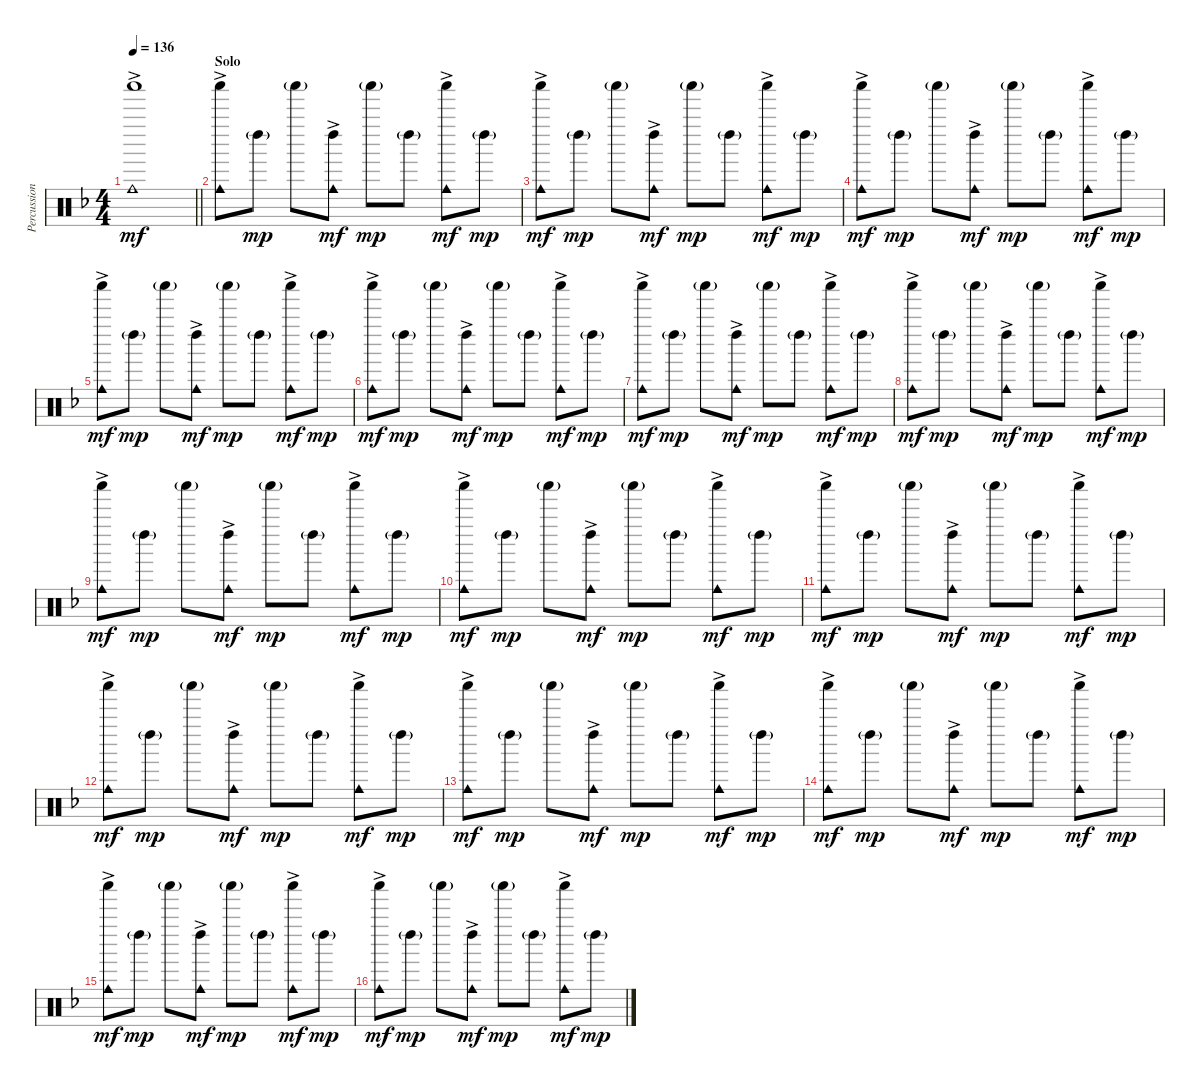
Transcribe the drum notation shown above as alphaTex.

\track ("Percussion" "Percussion") {instrument percussion}
\staff {score}
\articulation defaults
\ts (4 4)
\tempo 136
\clef neutral
\barLineRight lightlight
\ks f
("Shaker (hit)"{ac} "Cowbell medium (hit)").1{dy mf} |
\section ("" "Solo")
("Shaker (hit)"{ac} "Cowbell medium (hit)").8 "Left Maraca (hit)"{g}.8{dy mp} "Shaker (hit)"{g}.8 ("Left Maraca (hit)"{ac} "Cowbell medium (hit)").8{dy mf} "Shaker (hit)"{g}.8{dy mp} "Left Maraca (hit)"{g}.8 ("Shaker (hit)"{ac} "Cowbell medium (hit)").8{dy mf} "Left Maraca (hit)"{g}.8{dy mp} |
("Shaker (hit)"{ac} "Cowbell medium (hit)").8{dy mf} "Left Maraca (hit)"{g}.8{dy mp} "Shaker (hit)"{g}.8 ("Left Maraca (hit)"{ac} "Cowbell medium (hit)").8{dy mf} "Shaker (hit)"{g}.8{dy mp} "Left Maraca (hit)"{g}.8 ("Shaker (hit)"{ac} "Cowbell medium (hit)").8{dy mf} "Left Maraca (hit)"{g}.8{dy mp} |
("Shaker (hit)"{ac} "Cowbell medium (hit)").8{dy mf} "Left Maraca (hit)"{g}.8{dy mp} "Shaker (hit)"{g}.8 ("Left Maraca (hit)"{ac} "Cowbell medium (hit)").8{dy mf} "Shaker (hit)"{g}.8{dy mp} "Left Maraca (hit)"{g}.8 ("Shaker (hit)"{ac} "Cowbell medium (hit)").8{dy mf} "Left Maraca (hit)"{g}.8{dy mp} |
("Shaker (hit)"{ac} "Cowbell medium (hit)").8{dy mf} "Left Maraca (hit)"{g}.8{dy mp} "Shaker (hit)"{g}.8 ("Left Maraca (hit)"{ac} "Cowbell medium (hit)").8{dy mf} "Shaker (hit)"{g}.8{dy mp} "Left Maraca (hit)"{g}.8 ("Shaker (hit)"{ac} "Cowbell medium (hit)").8{dy mf} "Left Maraca (hit)"{g}.8{dy mp} |
("Shaker (hit)"{ac} "Cowbell medium (hit)").8{dy mf} "Left Maraca (hit)"{g}.8{dy mp} "Shaker (hit)"{g}.8 ("Left Maraca (hit)"{ac} "Cowbell medium (hit)").8{dy mf} "Shaker (hit)"{g}.8{dy mp} "Left Maraca (hit)"{g}.8 ("Shaker (hit)"{ac} "Cowbell medium (hit)").8{dy mf} "Left Maraca (hit)"{g}.8{dy mp} |
("Shaker (hit)"{ac} "Cowbell medium (hit)").8{dy mf} "Left Maraca (hit)"{g}.8{dy mp} "Shaker (hit)"{g}.8 ("Left Maraca (hit)"{ac} "Cowbell medium (hit)").8{dy mf} "Shaker (hit)"{g}.8{dy mp} "Left Maraca (hit)"{g}.8 ("Shaker (hit)"{ac} "Cowbell medium (hit)").8{dy mf} "Left Maraca (hit)"{g}.8{dy mp} |
("Shaker (hit)"{ac} "Cowbell medium (hit)").8{dy mf} "Left Maraca (hit)"{g}.8{dy mp} "Shaker (hit)"{g}.8 ("Left Maraca (hit)"{ac} "Cowbell medium (hit)").8{dy mf} "Shaker (hit)"{g}.8{dy mp} "Left Maraca (hit)"{g}.8 ("Shaker (hit)"{ac} "Cowbell medium (hit)").8{dy mf} "Left Maraca (hit)"{g}.8{dy mp} |
("Shaker (hit)"{ac} "Cowbell medium (hit)").8{dy mf} "Left Maraca (hit)"{g}.8{dy mp} "Shaker (hit)"{g}.8 ("Left Maraca (hit)"{ac} "Cowbell medium (hit)").8{dy mf} "Shaker (hit)"{g}.8{dy mp} "Left Maraca (hit)"{g}.8 ("Shaker (hit)"{ac} "Cowbell medium (hit)").8{dy mf} "Left Maraca (hit)"{g}.8{dy mp} |
("Shaker (hit)"{ac} "Cowbell medium (hit)").8{dy mf} "Left Maraca (hit)"{g}.8{dy mp} "Shaker (hit)"{g}.8 ("Left Maraca (hit)"{ac} "Cowbell medium (hit)").8{dy mf} "Shaker (hit)"{g}.8{dy mp} "Left Maraca (hit)"{g}.8 ("Shaker (hit)"{ac} "Cowbell medium (hit)").8{dy mf} "Left Maraca (hit)"{g}.8{dy mp} |
("Shaker (hit)"{ac} "Cowbell medium (hit)").8{dy mf} "Left Maraca (hit)"{g}.8{dy mp} "Shaker (hit)"{g}.8 ("Left Maraca (hit)"{ac} "Cowbell medium (hit)").8{dy mf} "Shaker (hit)"{g}.8{dy mp} "Left Maraca (hit)"{g}.8 ("Shaker (hit)"{ac} "Cowbell medium (hit)").8{dy mf} "Left Maraca (hit)"{g}.8{dy mp} |
("Shaker (hit)"{ac} "Cowbell medium (hit)").8{dy mf} "Left Maraca (hit)"{g}.8{dy mp} "Shaker (hit)"{g}.8 ("Left Maraca (hit)"{ac} "Cowbell medium (hit)").8{dy mf} "Shaker (hit)"{g}.8{dy mp} "Left Maraca (hit)"{g}.8 ("Shaker (hit)"{ac} "Cowbell medium (hit)").8{dy mf} "Left Maraca (hit)"{g}.8{dy mp} |
("Shaker (hit)"{ac} "Cowbell medium (hit)").8{dy mf} "Left Maraca (hit)"{g}.8{dy mp} "Shaker (hit)"{g}.8 ("Left Maraca (hit)"{ac} "Cowbell medium (hit)").8{dy mf} "Shaker (hit)"{g}.8{dy mp} "Left Maraca (hit)"{g}.8 ("Shaker (hit)"{ac} "Cowbell medium (hit)").8{dy mf} "Left Maraca (hit)"{g}.8{dy mp} |
("Shaker (hit)"{ac} "Cowbell medium (hit)").8{dy mf} "Left Maraca (hit)"{g}.8{dy mp} "Shaker (hit)"{g}.8 ("Left Maraca (hit)"{ac} "Cowbell medium (hit)").8{dy mf} "Shaker (hit)"{g}.8{dy mp} "Left Maraca (hit)"{g}.8 ("Shaker (hit)"{ac} "Cowbell medium (hit)").8{dy mf} "Left Maraca (hit)"{g}.8{dy mp} |
("Shaker (hit)"{ac} "Cowbell medium (hit)").8{dy mf} "Left Maraca (hit)"{g}.8{dy mp} "Shaker (hit)"{g}.8 ("Left Maraca (hit)"{ac} "Cowbell medium (hit)").8{dy mf} "Shaker (hit)"{g}.8{dy mp} "Left Maraca (hit)"{g}.8 ("Shaker (hit)"{ac} "Cowbell medium (hit)").8{dy mf} "Left Maraca (hit)"{g}.8{dy mp} |
("Shaker (hit)"{ac} "Cowbell medium (hit)").8{dy mf} "Left Maraca (hit)"{g}.8{dy mp} "Shaker (hit)"{g}.8 ("Left Maraca (hit)"{ac} "Cowbell medium (hit)").8{dy mf} "Shaker (hit)"{g}.8{dy mp} "Left Maraca (hit)"{g}.8 ("Shaker (hit)"{ac} "Cowbell medium (hit)").8{dy mf} "Left Maraca (hit)"{g}.8{dy mp}
